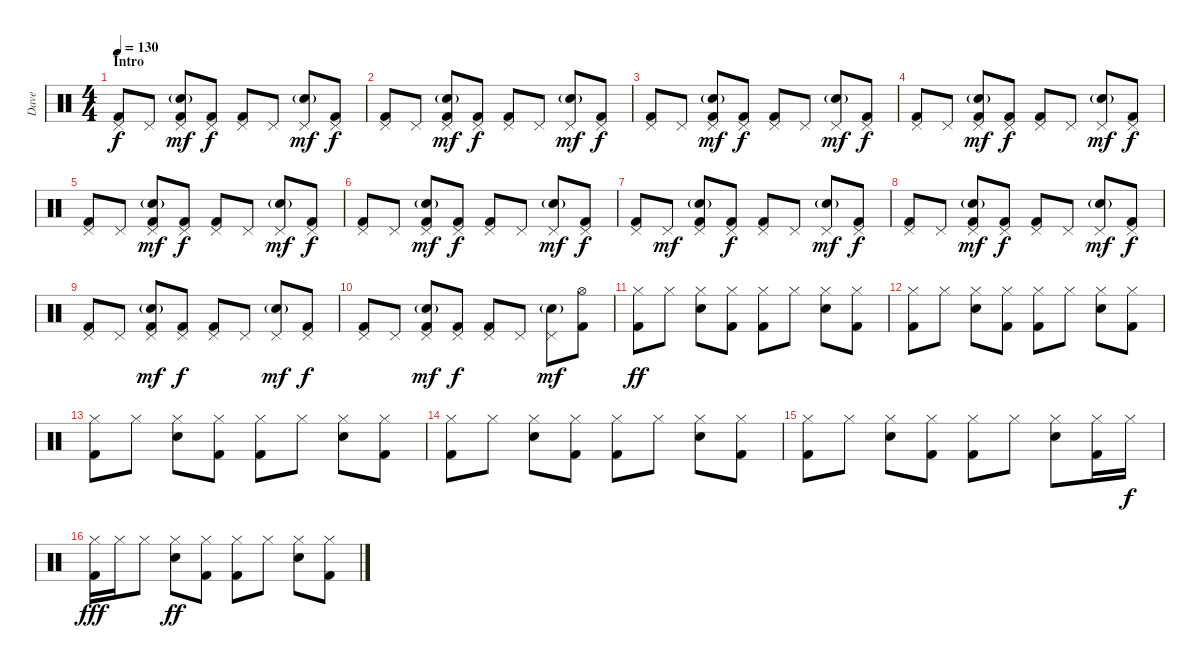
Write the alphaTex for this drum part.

\track ("Dave" "Dave") {instrument percussion}
\staff {score}
\articulation defaults
\ts (4 4)
\section ("" "Intro")
\tempo 130
\clef neutral
\ks c
("Pedal Hi-Hat (hit)" "Kick (hit) 2").8{dy f} "Pedal Hi-Hat (hit)".8 ("Pedal Hi-Hat (hit)" "Snare (hit) 2"{g} "Kick (hit) 2").8{dy mf} ("Pedal Hi-Hat (hit)" "Kick (hit) 2").8{dy f} ("Pedal Hi-Hat (hit)" "Kick (hit) 2").8 "Pedal Hi-Hat (hit)".8 ("Pedal Hi-Hat (hit)" "Snare (hit) 2"{g}).8{dy mf} ("Pedal Hi-Hat (hit)" "Kick (hit) 2").8{dy f} |
("Pedal Hi-Hat (hit)" "Kick (hit) 2").8 "Pedal Hi-Hat (hit)".8 ("Pedal Hi-Hat (hit)" "Snare (hit) 2"{g} "Kick (hit) 2").8{dy mf} ("Pedal Hi-Hat (hit)" "Kick (hit) 2").8{dy f} ("Pedal Hi-Hat (hit)" "Kick (hit) 2").8 "Pedal Hi-Hat (hit)".8 ("Pedal Hi-Hat (hit)" "Snare (hit) 2"{g}).8{dy mf} ("Pedal Hi-Hat (hit)" "Kick (hit) 2").8{dy f} |
("Pedal Hi-Hat (hit)" "Kick (hit) 2").8 "Pedal Hi-Hat (hit)".8 ("Pedal Hi-Hat (hit)" "Snare (hit) 2"{g} "Kick (hit) 2").8{dy mf} ("Pedal Hi-Hat (hit)" "Kick (hit) 2").8{dy f} ("Pedal Hi-Hat (hit)" "Kick (hit) 2").8 "Pedal Hi-Hat (hit)".8 ("Pedal Hi-Hat (hit)" "Snare (hit) 2"{g}).8{dy mf} ("Pedal Hi-Hat (hit)" "Kick (hit) 2").8{dy f} |
("Pedal Hi-Hat (hit)" "Kick (hit) 2").8 "Pedal Hi-Hat (hit)".8 ("Pedal Hi-Hat (hit)" "Snare (hit) 2"{g} "Kick (hit) 2").8{dy mf} ("Pedal Hi-Hat (hit)" "Kick (hit) 2").8{dy f} ("Pedal Hi-Hat (hit)" "Kick (hit) 2").8 "Pedal Hi-Hat (hit)".8 ("Pedal Hi-Hat (hit)" "Snare (hit) 2"{g}).8{dy mf} ("Pedal Hi-Hat (hit)" "Kick (hit) 2").8{dy f} |
("Pedal Hi-Hat (hit)" "Kick (hit) 2").8 "Pedal Hi-Hat (hit)".8 ("Pedal Hi-Hat (hit)" "Snare (hit) 2"{g} "Kick (hit) 2").8{dy mf} ("Pedal Hi-Hat (hit)" "Kick (hit) 2").8{dy f} ("Pedal Hi-Hat (hit)" "Kick (hit) 2").8 "Pedal Hi-Hat (hit)".8 ("Pedal Hi-Hat (hit)" "Snare (hit) 2"{g}).8{dy mf} ("Pedal Hi-Hat (hit)" "Kick (hit) 2").8{dy f} |
("Pedal Hi-Hat (hit)" "Kick (hit) 2").8 "Pedal Hi-Hat (hit)".8 ("Pedal Hi-Hat (hit)" "Snare (hit) 2"{g} "Kick (hit) 2").8{dy mf} ("Pedal Hi-Hat (hit)" "Kick (hit) 2").8{dy f} ("Pedal Hi-Hat (hit)" "Kick (hit) 2").8 "Pedal Hi-Hat (hit)".8 ("Pedal Hi-Hat (hit)" "Snare (hit) 2"{g}).8{dy mf} ("Pedal Hi-Hat (hit)" "Kick (hit) 2").8{dy f} |
("Pedal Hi-Hat (hit)" "Kick (hit) 2").8 "Pedal Hi-Hat (hit)".8{dy mf} ("Pedal Hi-Hat (hit)" "Snare (hit) 2"{g} "Kick (hit) 2").8 ("Pedal Hi-Hat (hit)" "Kick (hit) 2").8{dy f} ("Pedal Hi-Hat (hit)" "Kick (hit) 2").8 "Pedal Hi-Hat (hit)".8 ("Pedal Hi-Hat (hit)" "Snare (hit) 2"{g}).8{dy mf} ("Pedal Hi-Hat (hit)" "Kick (hit) 2").8{dy f} |
("Pedal Hi-Hat (hit)" "Kick (hit) 2").8 "Pedal Hi-Hat (hit)".8 ("Pedal Hi-Hat (hit)" "Snare (hit) 2"{g} "Kick (hit) 2").8{dy mf} ("Pedal Hi-Hat (hit)" "Kick (hit) 2").8{dy f} ("Pedal Hi-Hat (hit)" "Kick (hit) 2").8 "Pedal Hi-Hat (hit)".8 ("Pedal Hi-Hat (hit)" "Snare (hit) 2"{g}).8{dy mf} ("Pedal Hi-Hat (hit)" "Kick (hit) 2").8{dy f} |
("Pedal Hi-Hat (hit)" "Kick (hit) 2").8 "Pedal Hi-Hat (hit)".8 ("Pedal Hi-Hat (hit)" "Snare (hit) 2"{g} "Kick (hit) 2").8{dy mf} ("Pedal Hi-Hat (hit)" "Kick (hit) 2").8{dy f} ("Pedal Hi-Hat (hit)" "Kick (hit) 2").8 "Pedal Hi-Hat (hit)".8 ("Pedal Hi-Hat (hit)" "Snare (hit) 2"{g}).8{dy mf} ("Pedal Hi-Hat (hit)" "Kick (hit) 2").8{dy f} |
("Pedal Hi-Hat (hit)" "Kick (hit) 2").8 "Pedal Hi-Hat (hit)".8 ("Pedal Hi-Hat (hit)" "Snare (hit) 2"{g} "Kick (hit) 2").8{dy mf} ("Pedal Hi-Hat (hit)" "Kick (hit) 2").8{dy f} ("Pedal Hi-Hat (hit)" "Kick (hit) 2").8 "Pedal Hi-Hat (hit)".8 ("Pedal Hi-Hat (hit)" "Snare (hit) 2"{g}).8{dy mf} ("Hi-Hat (open)" "Kick (hit) 2").8 |
("Hi-Hat (closed)" "Kick (hit) 2").8{dy ff} "Hi-Hat (closed)".8 ("Hi-Hat (closed)" "Snare (hit) 2").8 ("Hi-Hat (closed)" "Kick (hit) 2").8 ("Hi-Hat (closed)" "Kick (hit) 2").8 "Hi-Hat (closed)".8 ("Hi-Hat (closed)" "Snare (hit) 2").8 ("Hi-Hat (closed)" "Kick (hit) 2").8 |
("Hi-Hat (closed)" "Kick (hit) 2").8 "Hi-Hat (closed)".8 ("Hi-Hat (closed)" "Snare (hit) 2").8 ("Hi-Hat (closed)" "Kick (hit) 2").8 ("Hi-Hat (closed)" "Kick (hit) 2").8 "Hi-Hat (closed)".8 ("Hi-Hat (closed)" "Snare (hit) 2").8 ("Hi-Hat (closed)" "Kick (hit) 2").8 |
("Hi-Hat (closed)" "Kick (hit) 2").8 "Hi-Hat (closed)".8 ("Hi-Hat (closed)" "Snare (hit) 2").8 ("Hi-Hat (closed)" "Kick (hit) 2").8 ("Hi-Hat (closed)" "Kick (hit) 2").8 "Hi-Hat (closed)".8 ("Hi-Hat (closed)" "Snare (hit) 2").8 ("Hi-Hat (closed)" "Kick (hit) 2").8 |
("Hi-Hat (closed)" "Kick (hit) 2").8 "Hi-Hat (closed)".8 ("Hi-Hat (closed)" "Snare (hit) 2").8 ("Hi-Hat (closed)" "Kick (hit) 2").8 ("Hi-Hat (closed)" "Kick (hit) 2").8 "Hi-Hat (closed)".8 ("Hi-Hat (closed)" "Snare (hit) 2").8 ("Hi-Hat (closed)" "Kick (hit) 2").8 |
("Hi-Hat (closed)" "Kick (hit) 2").8 "Hi-Hat (closed)".8 ("Hi-Hat (closed)" "Snare (hit) 2").8 ("Hi-Hat (closed)" "Kick (hit) 2").8 ("Hi-Hat (closed)" "Kick (hit) 2").8 "Hi-Hat (closed)".8 ("Hi-Hat (closed)" "Snare (hit) 2").8 ("Hi-Hat (closed)" "Kick (hit) 2").16 "Hi-Hat (closed)".16{dy f} |
("Hi-Hat (closed)" "Kick (hit) 2").16{dy fff} "Hi-Hat (closed)".16 "Hi-Hat (closed)".8 ("Hi-Hat (closed)" "Snare (hit) 2").8{dy ff} ("Hi-Hat (closed)" "Kick (hit) 2").8 ("Hi-Hat (closed)" "Kick (hit) 2").8 "Hi-Hat (closed)".8 ("Hi-Hat (closed)" "Snare (hit) 2").8 ("Hi-Hat (closed)" "Kick (hit) 2").8
